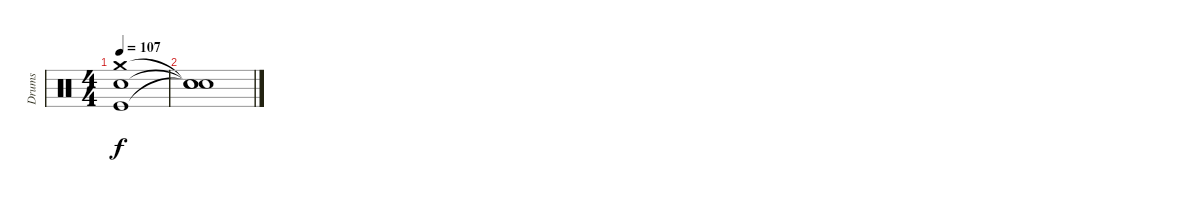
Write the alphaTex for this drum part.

\track ("Drums" "Drums") {instrument percussion}
\staff {score}
\articulation defaults
\ts (4 4)
\tempo 107
\clef neutral
\ks c
("Crash medium (hit)" "Electric Snare (hit)" "Kick (hit)").1{dy f} |
("Snare (hit)"{t} "Snare (hit)"{t} "Snare (hit)"{t}).1
